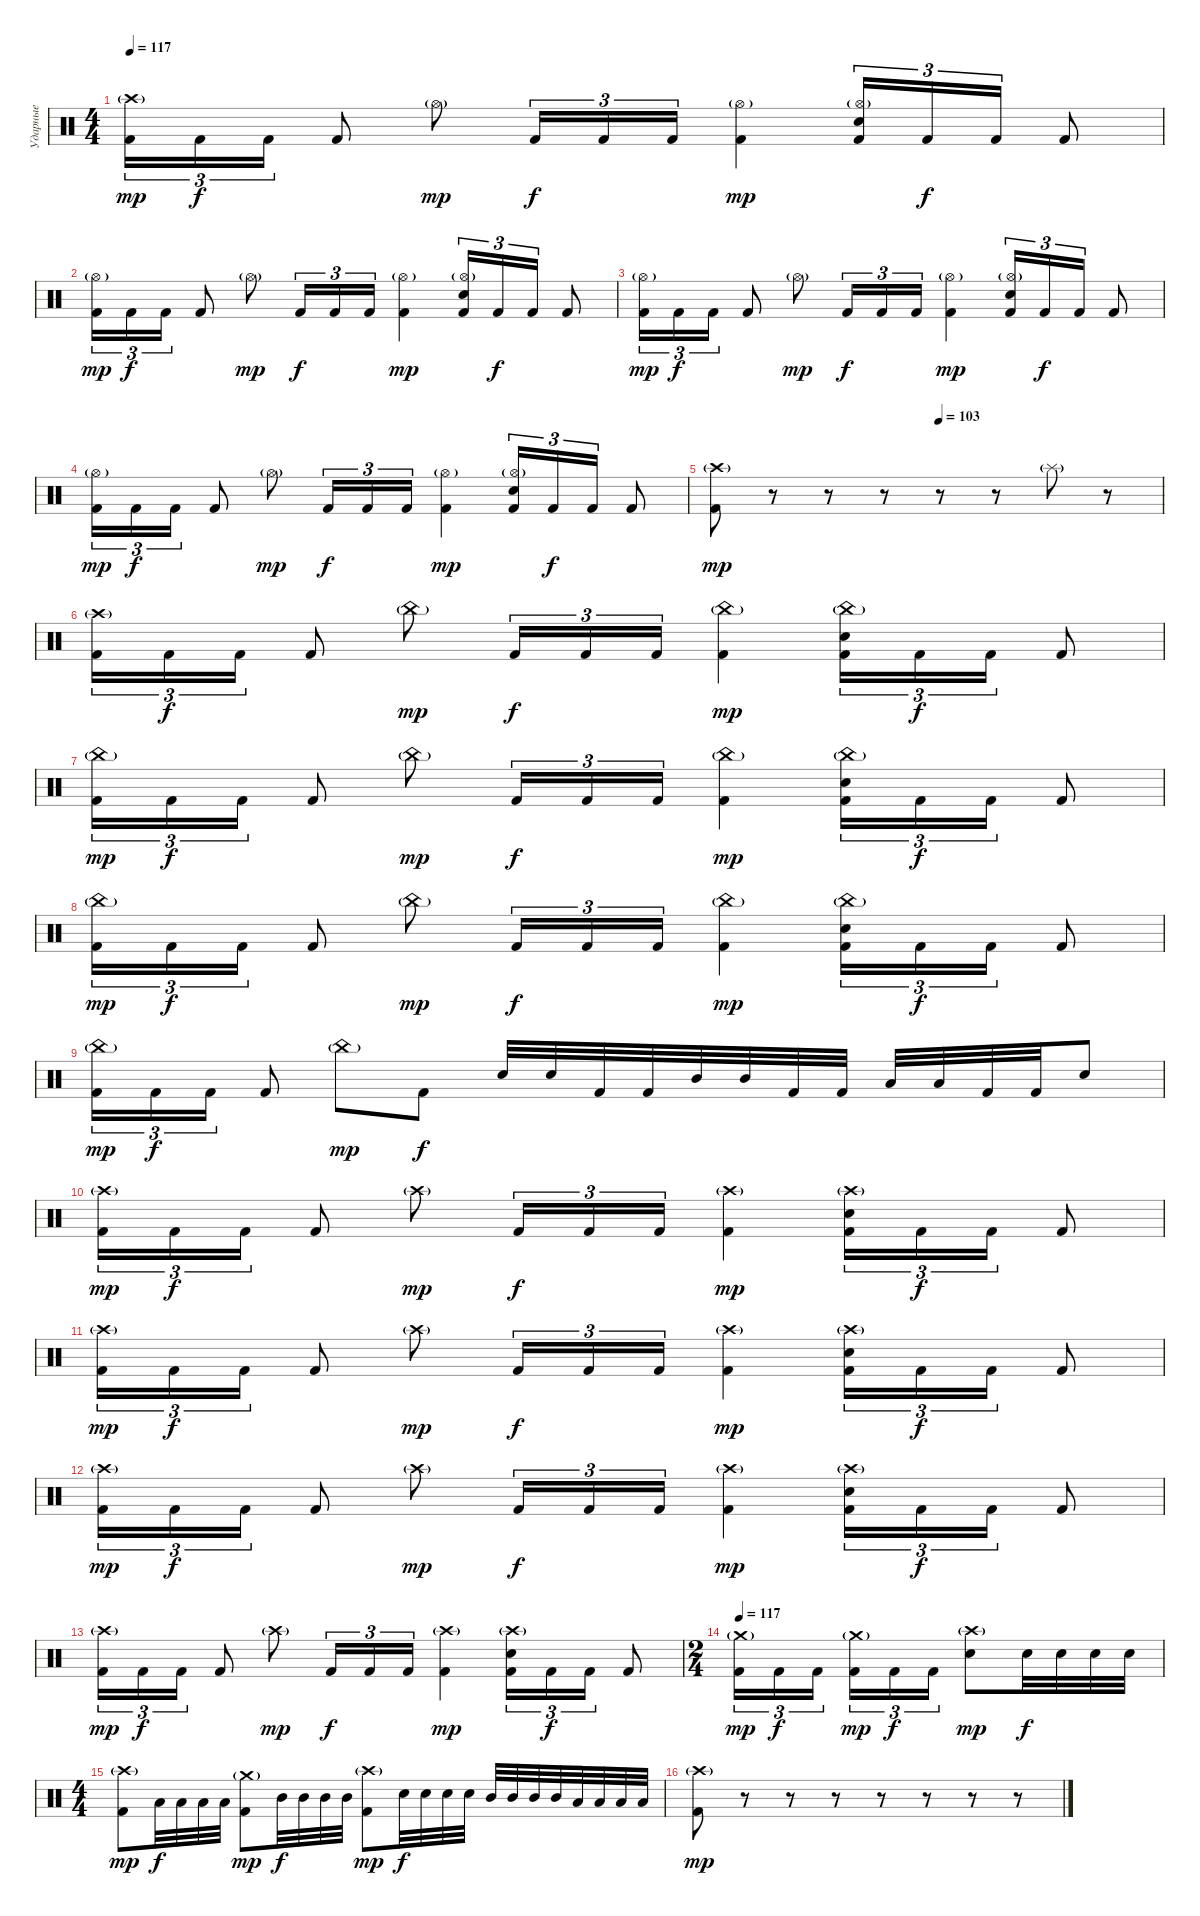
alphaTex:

\track ("Ударные" "Ударные") {instrument percussion}
\staff {score}
\articulation defaults
\ts (4 4)
\tempo 117
\clef neutral
\ks c
("Crash high (hit)"{g} "Kick (hit) 2").16{tu (3 2) dy mp} "Kick (hit) 2".16{tu (3 2) dy f} "Kick (hit) 2".16{tu (3 2)} "Kick (hit) 2".8 "Hi-Hat (open)"{g}.8{dy mp} "Kick (hit) 2".16{tu (3 2) dy f} "Kick (hit) 2".16{tu (3 2)} "Kick (hit) 2".16{tu (3 2)} ("Hi-Hat (open)"{g} "Kick (hit) 2").4{dy mp} ("Hi-Hat (open)"{g} "Electric Snare (hit)" "Kick (hit) 2").16{tu (3 2)} "Kick (hit) 2".16{tu (3 2) dy f} "Kick (hit) 2".16{tu (3 2)} "Kick (hit) 2".8 |
("Hi-Hat (open)"{g} "Kick (hit) 2").16{tu (3 2) dy mp} "Kick (hit) 2".16{tu (3 2) dy f} "Kick (hit) 2".16{tu (3 2)} "Kick (hit) 2".8 "Hi-Hat (open)"{g}.8{dy mp} "Kick (hit) 2".16{tu (3 2) dy f} "Kick (hit) 2".16{tu (3 2)} "Kick (hit) 2".16{tu (3 2)} ("Hi-Hat (open)"{g} "Kick (hit) 2").4{dy mp} ("Hi-Hat (open)"{g} "Electric Snare (hit)" "Kick (hit) 2").16{tu (3 2)} "Kick (hit) 2".16{tu (3 2) dy f} "Kick (hit) 2".16{tu (3 2)} "Kick (hit) 2".8 |
("Hi-Hat (open)"{g} "Kick (hit) 2").16{tu (3 2) dy mp} "Kick (hit) 2".16{tu (3 2) dy f} "Kick (hit) 2".16{tu (3 2)} "Kick (hit) 2".8 "Hi-Hat (open)"{g}.8{dy mp} "Kick (hit) 2".16{tu (3 2) dy f} "Kick (hit) 2".16{tu (3 2)} "Kick (hit) 2".16{tu (3 2)} ("Hi-Hat (open)"{g} "Kick (hit) 2").4{dy mp} ("Hi-Hat (open)"{g} "Electric Snare (hit)" "Kick (hit) 2").16{tu (3 2)} "Kick (hit) 2".16{tu (3 2) dy f} "Kick (hit) 2".16{tu (3 2)} "Kick (hit) 2".8 |
("Hi-Hat (open)"{g} "Kick (hit) 2").16{tu (3 2) dy mp} "Kick (hit) 2".16{tu (3 2) dy f} "Kick (hit) 2".16{tu (3 2)} "Kick (hit) 2".8 "Hi-Hat (open)"{g}.8{dy mp} "Kick (hit) 2".16{tu (3 2) dy f} "Kick (hit) 2".16{tu (3 2)} "Kick (hit) 2".16{tu (3 2)} ("Hi-Hat (open)"{g} "Kick (hit) 2").4{dy mp} ("Hi-Hat (open)"{g} "Electric Snare (hit)" "Kick (hit) 2").16{tu (3 2)} "Kick (hit) 2".16{tu (3 2) dy f} "Kick (hit) 2".16{tu (3 2)} "Kick (hit) 2".8 |
\tempo (103 0.5)
("Crash high (hit)"{g} "Kick (hit) 2").8{dy mp} r.8{volume 0} r.8 r.8 r.8 r.8 "Splash (hit)"{g}.8{volume 16} r.8 |
("Crash high (hit)"{g} "Kick (hit) 2").16{tu (3 2)} "Kick (hit) 2".16{tu (3 2) dy f} "Kick (hit) 2".16{tu (3 2)} "Kick (hit) 2".8 "China (hit)"{g}.8{dy mp} "Kick (hit) 2".16{tu (3 2) dy f} "Kick (hit) 2".16{tu (3 2)} "Kick (hit) 2".16{tu (3 2)} ("China (hit)"{g} "Kick (hit) 2").4{dy mp} ("China (hit)"{g} "Electric Snare (hit)" "Kick (hit) 2").16{tu (3 2)} "Kick (hit) 2".16{tu (3 2) dy f} "Kick (hit) 2".16{tu (3 2)} "Kick (hit) 2".8 |
("China (hit)"{g} "Kick (hit) 2").16{tu (3 2) dy mp} "Kick (hit) 2".16{tu (3 2) dy f} "Kick (hit) 2".16{tu (3 2)} "Kick (hit) 2".8 "China (hit)"{g}.8{dy mp} "Kick (hit) 2".16{tu (3 2) dy f} "Kick (hit) 2".16{tu (3 2)} "Kick (hit) 2".16{tu (3 2)} ("China (hit)"{g} "Kick (hit) 2").4{dy mp} ("China (hit)"{g} "Electric Snare (hit)" "Kick (hit) 2").16{tu (3 2)} "Kick (hit) 2".16{tu (3 2) dy f} "Kick (hit) 2".16{tu (3 2)} "Kick (hit) 2".8 |
("China (hit)"{g} "Kick (hit) 2").16{tu (3 2) dy mp} "Kick (hit) 2".16{tu (3 2) dy f} "Kick (hit) 2".16{tu (3 2)} "Kick (hit) 2".8 "China (hit)"{g}.8{dy mp} "Kick (hit) 2".16{tu (3 2) dy f} "Kick (hit) 2".16{tu (3 2)} "Kick (hit) 2".16{tu (3 2)} ("China (hit)"{g} "Kick (hit) 2").4{dy mp} ("China (hit)"{g} "Electric Snare (hit)" "Kick (hit) 2").16{tu (3 2)} "Kick (hit) 2".16{tu (3 2) dy f} "Kick (hit) 2".16{tu (3 2)} "Kick (hit) 2".8 |
("China (hit)"{g} "Kick (hit) 2").16{tu (3 2) dy mp} "Kick (hit) 2".16{tu (3 2) dy f} "Kick (hit) 2".16{tu (3 2)} "Kick (hit) 2".8 "China (hit)"{g}.8{dy mp} "Kick (hit) 2".8{dy f} "Electric Snare (hit)".32 "Electric Snare (hit)".32 "Kick (hit) 2".32 "Kick (hit) 2".32 "Mid Tom (hit)".32 "Mid Tom (hit)".32 "Kick (hit) 2".32 "Kick (hit) 2".32 "Low Tom (hit)".32 "Low Tom (hit)".32 "Kick (hit) 2".32 "Kick (hit) 2".32 "Electric Snare (hit)".8 |
("Crash high (hit)"{g} "Kick (hit) 2").16{tu (3 2) dy mp} "Kick (hit) 2".16{tu (3 2) dy f} "Kick (hit) 2".16{tu (3 2)} "Kick (hit) 2".8 "Crash high (hit)"{g}.8{dy mp} "Kick (hit) 2".16{tu (3 2) dy f} "Kick (hit) 2".16{tu (3 2)} "Kick (hit) 2".16{tu (3 2)} ("Crash high (hit)"{g} "Kick (hit) 2").4{dy mp} ("Crash high (hit)"{g} "Electric Snare (hit)" "Kick (hit) 2").16{tu (3 2)} "Kick (hit) 2".16{tu (3 2) dy f} "Kick (hit) 2".16{tu (3 2)} "Kick (hit) 2".8 |
("Crash high (hit)"{g} "Kick (hit) 2").16{tu (3 2) dy mp} "Kick (hit) 2".16{tu (3 2) dy f} "Kick (hit) 2".16{tu (3 2)} "Kick (hit) 2".8 "Crash high (hit)"{g}.8{dy mp} "Kick (hit) 2".16{tu (3 2) dy f} "Kick (hit) 2".16{tu (3 2)} "Kick (hit) 2".16{tu (3 2)} ("Crash high (hit)"{g} "Kick (hit) 2").4{dy mp} ("Crash high (hit)"{g} "Electric Snare (hit)" "Kick (hit) 2").16{tu (3 2)} "Kick (hit) 2".16{tu (3 2) dy f} "Kick (hit) 2".16{tu (3 2)} "Kick (hit) 2".8 |
("Crash high (hit)"{g} "Kick (hit) 2").16{tu (3 2) dy mp} "Kick (hit) 2".16{tu (3 2) dy f} "Kick (hit) 2".16{tu (3 2)} "Kick (hit) 2".8 "Crash high (hit)"{g}.8{dy mp} "Kick (hit) 2".16{tu (3 2) dy f} "Kick (hit) 2".16{tu (3 2)} "Kick (hit) 2".16{tu (3 2)} ("Crash high (hit)"{g} "Kick (hit) 2").4{dy mp} ("Crash high (hit)"{g} "Electric Snare (hit)" "Kick (hit) 2").16{tu (3 2)} "Kick (hit) 2".16{tu (3 2) dy f} "Kick (hit) 2".16{tu (3 2)} "Kick (hit) 2".8 |
("Crash high (hit)"{g} "Kick (hit) 2").16{tu (3 2) dy mp} "Kick (hit) 2".16{tu (3 2) dy f} "Kick (hit) 2".16{tu (3 2)} "Kick (hit) 2".8 "Crash high (hit)"{g}.8{dy mp} "Kick (hit) 2".16{tu (3 2) dy f} "Kick (hit) 2".16{tu (3 2)} "Kick (hit) 2".16{tu (3 2)} ("Crash high (hit)"{g} "Kick (hit) 2").4{dy mp} ("Crash high (hit)"{g} "Electric Snare (hit)" "Kick (hit) 2").16{tu (3 2)} "Kick (hit) 2".16{tu (3 2) dy f} "Kick (hit) 2".16{tu (3 2)} "Kick (hit) 2".8 |
\ts (2 4)
\tempo 117
("Crash medium (hit)"{g} "Kick (hit) 2").16{tu (3 2) dy mp} "Kick (hit) 2".16{tu (3 2) dy f} "Kick (hit) 2".16{tu (3 2)} ("Crash medium (hit)"{g} "Kick (hit) 2").16{tu (3 2) dy mp} "Kick (hit) 2".16{tu (3 2) dy f} "Kick (hit) 2".16{tu (3 2)} ("Crash high (hit)"{g} "Electric Snare (hit)").8{dy mp} "Electric Snare (hit)".32{dy f} "Electric Snare (hit)".32 "Electric Snare (hit)".32 "Electric Snare (hit)".32 |
\ts (4 4)
("Crash high (hit)"{g} "Kick (hit) 2").8{dy mp} "Low Tom (hit)".32{dy f} "Low Tom (hit)".32 "Low Tom (hit)".32 "Low Tom (hit)".32 ("Crash medium (hit)"{g} "Kick (hit) 2").8{dy mp} "Mid Tom (hit)".32{dy f} "Mid Tom (hit)".32 "Mid Tom (hit)".32 "Mid Tom (hit)".32 ("Crash high (hit)"{g} "Kick (hit) 2").8{dy mp} "Electric Snare (hit)".32{dy f} "Electric Snare (hit)".32 "Electric Snare (hit)".32 "Electric Snare (hit)".32 "Mid Tom (hit)".32 "Mid Tom (hit)".32 "Mid Tom (hit)".32 "Mid Tom (hit)".32 "Low Tom (hit)".32 "Low Tom (hit)".32 "Low Tom (hit)".32 "Low Tom (hit)".32 |
("Crash high (hit)"{g} "Kick (hit) 2").8{dy mp} r.8{volume 0} r.8 r.8 r.8 r.8 r.8 r.8
